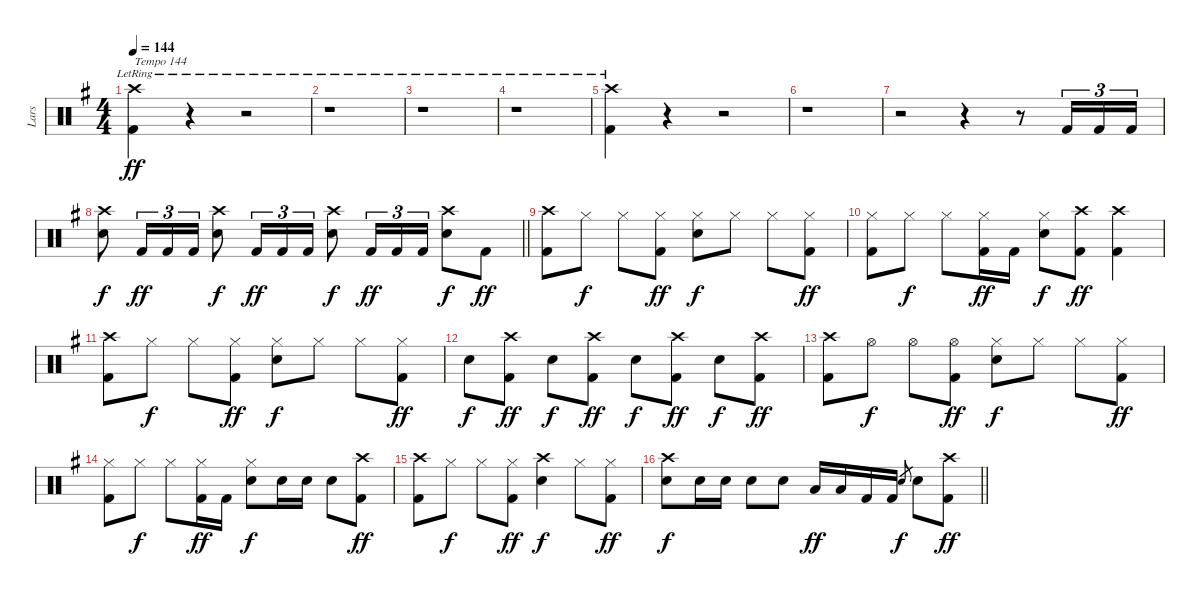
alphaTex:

\track ("Lars" "Lars") {instrument percussion}
\staff {score}
\articulation defaults
\ts (4 4)
\tempo 144
\clef neutral
\ks g
("Crash high (hit)"{lr} "Kick (hit) 2"{lr}).4{txt "Tempo 144" dy ff} r.4 r.2 |
r.1 |
r.1 |
r.1 |
("Crash high (hit)"{lr} "Kick (hit) 2"{lr}).4 r.4 r.2 |
r.1 |
r.2 r.4 r.8 "Kick (hit) 2".16{tu (3 2)} "Kick (hit) 2".16{tu (3 2)} "Kick (hit) 2".16{tu (3 2)} |
\barLineRight lightlight
("Crash high (hit)" "Snare (hit) 2").8{dy f} "Kick (hit) 2".16{tu (3 2) dy ff} "Kick (hit) 2".16{tu (3 2)} "Kick (hit) 2".16{tu (3 2)} ("Crash high (hit)" "Snare (hit) 2").8{dy f} "Kick (hit) 2".16{tu (3 2) dy ff} "Kick (hit) 2".16{tu (3 2)} "Kick (hit) 2".16{tu (3 2)} ("Crash high (hit)" "Snare (hit) 2").8{dy f} "Kick (hit) 2".16{tu (3 2) dy ff} "Kick (hit) 2".16{tu (3 2)} "Kick (hit) 2".16{tu (3 2)} ("Crash high (hit)" "Snare (hit) 2").8{dy f} "Kick (hit) 2".8{dy ff} |
("Crash high (hit)" "Kick (hit) 2").8 "Hi-Hat (closed)".8{dy f} "Hi-Hat (closed)".8 ("Hi-Hat (closed)" "Kick (hit) 2").8{dy ff} ("Hi-Hat (closed)" "Snare (hit) 2").8{dy f} "Hi-Hat (closed)".8 "Hi-Hat (closed)".8 ("Hi-Hat (closed)" "Kick (hit) 2").8{dy ff} |
("Hi-Hat (closed)" "Kick (hit) 2").8 "Hi-Hat (closed)".8{dy f} "Hi-Hat (closed)".8 ("Hi-Hat (closed)" "Kick (hit) 2").16{dy ff} "Kick (hit) 2".16 ("Hi-Hat (closed)" "Snare (hit) 2").8{dy f} ("Crash high (hit)" "Kick (hit) 2").8{dy ff} ("Crash high (hit)" "Kick (hit) 2").4 |
("Crash high (hit)" "Kick (hit) 2").8 "Hi-Hat (closed)".8{dy f} "Hi-Hat (closed)".8 ("Hi-Hat (closed)" "Kick (hit) 2").8{dy ff} ("Hi-Hat (closed)" "Snare (hit) 2").8{dy f} "Hi-Hat (closed)".8 "Hi-Hat (closed)".8 ("Hi-Hat (closed)" "Kick (hit) 2").8{dy ff} |
"Snare (hit) 2".8{dy f} ("Crash high (hit)" "Kick (hit) 2").8{dy ff} "Snare (hit) 2".8{dy f} ("Crash high (hit)" "Kick (hit) 2").8{dy ff} "Snare (hit) 2".8{dy f} ("Crash high (hit)" "Kick (hit) 2").8{dy ff} "Snare (hit) 2".8{dy f} ("Crash high (hit)" "Kick (hit) 2").8{dy ff} |
("Crash high (hit)" "Kick (hit) 2").8 "Hi-Hat (open)".8{dy f} "Hi-Hat (open)".8 ("Hi-Hat (open)" "Kick (hit) 2").8{dy ff} ("Hi-Hat (closed)" "Snare (hit) 2").8{dy f} "Hi-Hat (closed)".8 "Hi-Hat (closed)".8 ("Hi-Hat (closed)" "Kick (hit) 2").8{dy ff} |
("Hi-Hat (closed)" "Kick (hit) 2").8 "Hi-Hat (closed)".8{dy f} "Hi-Hat (closed)".8 ("Hi-Hat (closed)" "Kick (hit) 2").16{dy ff} "Kick (hit) 2".16 ("Hi-Hat (closed)" "Snare (hit) 2").8{dy f} "Snare (hit) 2".16 "Snare (hit) 2".16 "Snare (hit) 2".8 ("Crash high (hit)" "Kick (hit) 2").8{dy ff} |
("Crash high (hit)" "Kick (hit) 2").8 "Hi-Hat (closed)".8{dy f} "Hi-Hat (closed)".8 ("Hi-Hat (closed)" "Kick (hit) 2").8{dy ff} ("Crash high (hit)" "Snare (hit) 2").4{dy f} "Hi-Hat (closed)".8 ("Hi-Hat (closed)" "Kick (hit) 2").8{dy ff} |
\barLineRight lightlight
("Crash high (hit)" "Snare (hit) 2").8{dy f} "Snare (hit) 2".16 "Snare (hit) 2".16 "Snare (hit) 2".8 "Snare (hit) 2".8 "Low Tom (hit)".16{dy ff} "Low Tom (hit)".16 "Kick (hit) 2".16 "Kick (hit) 2".16 "Snare (hit) 2".8{gr dy f} "Snare (hit) 2".8 ("Crash high (hit)" "Kick (hit) 2").8{dy ff}
